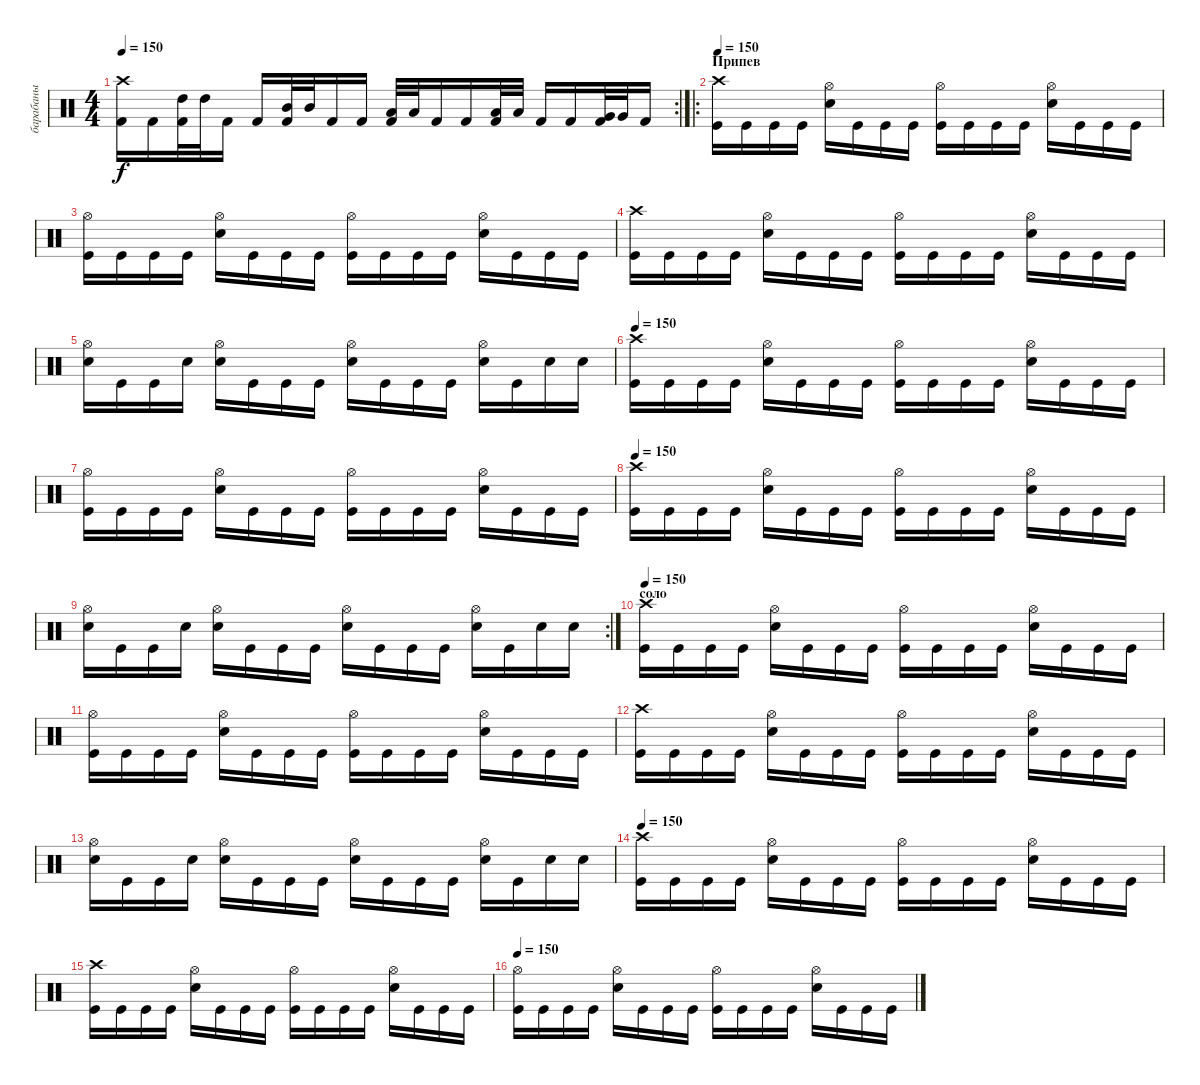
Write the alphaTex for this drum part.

\track ("барабаны" "барабаны") {instrument percussion}
\staff {score}
\articulation defaults
\rc 2
\ts (4 4)
\tempo 150
\clef neutral
\ks c
("Crash high (hit)" "Kick (hit) 2").16{dy f} "Kick (hit) 2".16 ("High Tom (hit)" "Kick (hit) 2").32 "High Tom (hit)".32 "Kick (hit) 2".16 "Kick (hit) 2".16 ("Mid Tom (hit)" "Kick (hit) 2").32 "Mid Tom (hit)".32 "Kick (hit) 2".16 "Kick (hit) 2".16 ("Low Tom (hit)" "Kick (hit) 2").32 "Low Tom (hit)".32 "Kick (hit) 2".16 "Kick (hit) 2".16 ("Low Tom (hit)" "Kick (hit) 2").32 "Low Tom (hit)".32 "Kick (hit) 2".16 "Kick (hit) 2".16 ("Very Low Tom (hit)" "Kick (hit) 2").32 "Very Low Tom (hit)".32 "Kick (hit) 2".16 |
\ro
\section ("" "Припев")
\tempo 150
("Crash high (hit)" "Kick (hit)").16 "Kick (hit)".16 "Kick (hit)".16 "Kick (hit)".16 ("Hi-Hat (open)" "Electric Snare (hit)").16 "Kick (hit)".16 "Kick (hit)".16 "Kick (hit)".16 ("Hi-Hat (open)" "Kick (hit)").16 "Kick (hit)".16 "Kick (hit)".16 "Kick (hit)".16 ("Hi-Hat (open)" "Electric Snare (hit)").16 "Kick (hit)".16 "Kick (hit)".16 "Kick (hit)".16 |
("Hi-Hat (open)" "Kick (hit)").16 "Kick (hit)".16 "Kick (hit)".16 "Kick (hit)".16 ("Hi-Hat (open)" "Electric Snare (hit)").16 "Kick (hit)".16 "Kick (hit)".16 "Kick (hit)".16 ("Hi-Hat (open)" "Kick (hit)").16 "Kick (hit)".16 "Kick (hit)".16 "Kick (hit)".16 ("Hi-Hat (open)" "Electric Snare (hit)").16 "Kick (hit)".16 "Kick (hit)".16 "Kick (hit)".16 |
("Crash high (hit)" "Kick (hit)").16 "Kick (hit)".16 "Kick (hit)".16 "Kick (hit)".16 ("Hi-Hat (open)" "Electric Snare (hit)").16 "Kick (hit)".16 "Kick (hit)".16 "Kick (hit)".16 ("Hi-Hat (open)" "Kick (hit)").16 "Kick (hit)".16 "Kick (hit)".16 "Kick (hit)".16 ("Hi-Hat (open)" "Electric Snare (hit)").16 "Kick (hit)".16 "Kick (hit)".16 "Kick (hit)".16 |
("Hi-Hat (open)" "Electric Snare (hit)").16 "Kick (hit)".16 "Kick (hit)".16 "Electric Snare (hit)".16 ("Hi-Hat (open)" "Electric Snare (hit)").16 "Kick (hit)".16 "Kick (hit)".16 "Kick (hit)".16 ("Hi-Hat (open)" "Electric Snare (hit)").16 "Kick (hit)".16 "Kick (hit)".16 "Kick (hit)".16 ("Hi-Hat (open)" "Electric Snare (hit)").16 "Kick (hit)".16 "Electric Snare (hit)".16 "Electric Snare (hit)".16 |
\tempo 150
("Crash high (hit)" "Kick (hit)").16 "Kick (hit)".16 "Kick (hit)".16 "Kick (hit)".16 ("Hi-Hat (open)" "Electric Snare (hit)").16 "Kick (hit)".16 "Kick (hit)".16 "Kick (hit)".16 ("Hi-Hat (open)" "Kick (hit)").16 "Kick (hit)".16 "Kick (hit)".16 "Kick (hit)".16 ("Hi-Hat (open)" "Electric Snare (hit)").16 "Kick (hit)".16 "Kick (hit)".16 "Kick (hit)".16 |
("Hi-Hat (open)" "Kick (hit)").16 "Kick (hit)".16 "Kick (hit)".16 "Kick (hit)".16 ("Hi-Hat (open)" "Electric Snare (hit)").16 "Kick (hit)".16 "Kick (hit)".16 "Kick (hit)".16 ("Hi-Hat (open)" "Kick (hit)").16 "Kick (hit)".16 "Kick (hit)".16 "Kick (hit)".16 ("Hi-Hat (open)" "Electric Snare (hit)").16 "Kick (hit)".16 "Kick (hit)".16 "Kick (hit)".16 |
\tempo 150
("Crash high (hit)" "Kick (hit)").16 "Kick (hit)".16 "Kick (hit)".16 "Kick (hit)".16 ("Hi-Hat (open)" "Electric Snare (hit)").16 "Kick (hit)".16 "Kick (hit)".16 "Kick (hit)".16 ("Hi-Hat (open)" "Kick (hit)").16 "Kick (hit)".16 "Kick (hit)".16 "Kick (hit)".16 ("Hi-Hat (open)" "Electric Snare (hit)").16 "Kick (hit)".16 "Kick (hit)".16 "Kick (hit)".16 |
\rc 2
("Hi-Hat (open)" "Electric Snare (hit)").16 "Kick (hit)".16 "Kick (hit)".16 "Electric Snare (hit)".16 ("Hi-Hat (open)" "Electric Snare (hit)").16 "Kick (hit)".16 "Kick (hit)".16 "Kick (hit)".16 ("Hi-Hat (open)" "Electric Snare (hit)").16 "Kick (hit)".16 "Kick (hit)".16 "Kick (hit)".16 ("Hi-Hat (open)" "Electric Snare (hit)").16 "Kick (hit)".16 "Electric Snare (hit)".16 "Electric Snare (hit)".16 |
\section ("" "соло")
\tempo 150
("Crash high (hit)" "Kick (hit)").16 "Kick (hit)".16 "Kick (hit)".16 "Kick (hit)".16 ("Hi-Hat (open)" "Electric Snare (hit)").16 "Kick (hit)".16 "Kick (hit)".16 "Kick (hit)".16 ("Hi-Hat (open)" "Kick (hit)").16 "Kick (hit)".16 "Kick (hit)".16 "Kick (hit)".16 ("Hi-Hat (open)" "Electric Snare (hit)").16 "Kick (hit)".16 "Kick (hit)".16 "Kick (hit)".16 |
("Hi-Hat (open)" "Kick (hit)").16 "Kick (hit)".16 "Kick (hit)".16 "Kick (hit)".16 ("Hi-Hat (open)" "Electric Snare (hit)").16 "Kick (hit)".16 "Kick (hit)".16 "Kick (hit)".16 ("Hi-Hat (open)" "Kick (hit)").16 "Kick (hit)".16 "Kick (hit)".16 "Kick (hit)".16 ("Hi-Hat (open)" "Electric Snare (hit)").16 "Kick (hit)".16 "Kick (hit)".16 "Kick (hit)".16 |
("Crash high (hit)" "Kick (hit)").16 "Kick (hit)".16 "Kick (hit)".16 "Kick (hit)".16 ("Hi-Hat (open)" "Electric Snare (hit)").16 "Kick (hit)".16 "Kick (hit)".16 "Kick (hit)".16 ("Hi-Hat (open)" "Kick (hit)").16 "Kick (hit)".16 "Kick (hit)".16 "Kick (hit)".16 ("Hi-Hat (open)" "Electric Snare (hit)").16 "Kick (hit)".16 "Kick (hit)".16 "Kick (hit)".16 |
("Hi-Hat (open)" "Electric Snare (hit)").16 "Kick (hit)".16 "Kick (hit)".16 "Electric Snare (hit)".16 ("Hi-Hat (open)" "Electric Snare (hit)").16 "Kick (hit)".16 "Kick (hit)".16 "Kick (hit)".16 ("Hi-Hat (open)" "Electric Snare (hit)").16 "Kick (hit)".16 "Kick (hit)".16 "Kick (hit)".16 ("Hi-Hat (open)" "Electric Snare (hit)").16 "Kick (hit)".16 "Electric Snare (hit)".16 "Electric Snare (hit)".16 |
\tempo 150
("Crash high (hit)" "Kick (hit)").16 "Kick (hit)".16 "Kick (hit)".16 "Kick (hit)".16 ("Hi-Hat (open)" "Electric Snare (hit)").16 "Kick (hit)".16 "Kick (hit)".16 "Kick (hit)".16 ("Hi-Hat (open)" "Kick (hit)").16 "Kick (hit)".16 "Kick (hit)".16 "Kick (hit)".16 ("Hi-Hat (open)" "Electric Snare (hit)").16 "Kick (hit)".16 "Kick (hit)".16 "Kick (hit)".16 |
("Crash high (hit)" "Kick (hit)").16 "Kick (hit)".16 "Kick (hit)".16 "Kick (hit)".16 ("Hi-Hat (open)" "Electric Snare (hit)").16 "Kick (hit)".16 "Kick (hit)".16 "Kick (hit)".16 ("Hi-Hat (open)" "Kick (hit)").16 "Kick (hit)".16 "Kick (hit)".16 "Kick (hit)".16 ("Hi-Hat (open)" "Electric Snare (hit)").16 "Kick (hit)".16 "Kick (hit)".16 "Kick (hit)".16 |
\tempo 150
("Hi-Hat (open)" "Kick (hit)").16 "Kick (hit)".16 "Kick (hit)".16 "Kick (hit)".16 ("Hi-Hat (open)" "Electric Snare (hit)").16 "Kick (hit)".16 "Kick (hit)".16 "Kick (hit)".16 ("Hi-Hat (open)" "Kick (hit)").16 "Kick (hit)".16 "Kick (hit)".16 "Kick (hit)".16 ("Hi-Hat (open)" "Electric Snare (hit)").16 "Kick (hit)".16 "Kick (hit)".16 "Kick (hit)".16
